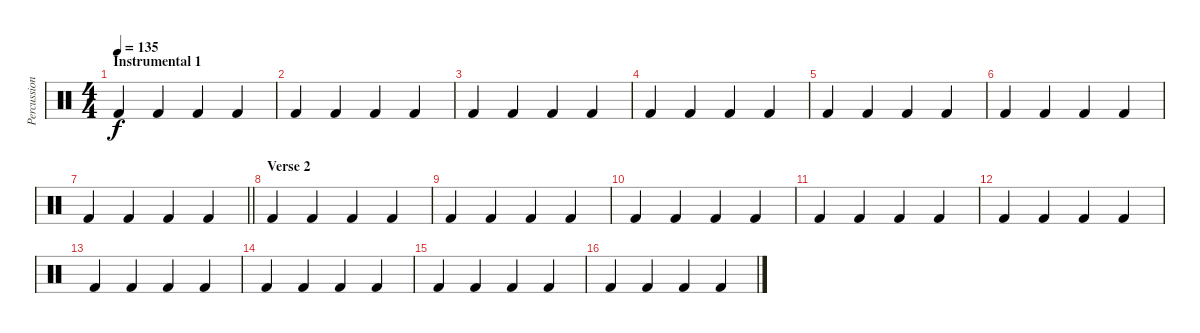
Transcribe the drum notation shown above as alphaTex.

\track ("Percussion" "Percussion") {instrument percussion}
\staff {score}
\articulation defaults
\ts (4 4)
\section ("" "Instrumental 1")
\tempo 135
\clef neutral
\ks c "Kick (hit) 2".4{dy f} "Kick (hit) 2".4 "Kick (hit) 2".4 "Kick (hit) 2".4
|
"Kick (hit) 2".4 "Kick (hit) 2".4 "Kick (hit) 2".4 "Kick (hit) 2".4 |
"Kick (hit) 2".4 "Kick (hit) 2".4 "Kick (hit) 2".4 "Kick (hit) 2".4 |
"Kick (hit) 2".4 "Kick (hit) 2".4 "Kick (hit) 2".4 "Kick (hit) 2".4 |
"Kick (hit) 2".4 "Kick (hit) 2".4 "Kick (hit) 2".4 "Kick (hit) 2".4 |
"Kick (hit) 2".4 "Kick (hit) 2".4 "Kick (hit) 2".4 "Kick (hit) 2".4 |
\barLineRight lightlight "Kick (hit) 2".4 "Kick (hit) 2".4 "Kick (hit) 2".4 "Kick (hit) 2".4
|
\section ("" "Verse 2")
"Kick (hit) 2".4 "Kick (hit) 2".4 "Kick (hit) 2".4 "Kick (hit) 2".4 |
"Kick (hit) 2".4 "Kick (hit) 2".4 "Kick (hit) 2".4 "Kick (hit) 2".4 |
"Kick (hit) 2".4 "Kick (hit) 2".4 "Kick (hit) 2".4 "Kick (hit) 2".4 |
"Kick (hit) 2".4 "Kick (hit) 2".4 "Kick (hit) 2".4 "Kick (hit) 2".4 |
"Kick (hit) 2".4 "Kick (hit) 2".4 "Kick (hit) 2".4 "Kick (hit) 2".4 |
"Kick (hit) 2".4 "Kick (hit) 2".4 "Kick (hit) 2".4 "Kick (hit) 2".4 |
"Kick (hit) 2".4 "Kick (hit) 2".4 "Kick (hit) 2".4 "Kick (hit) 2".4 |
"Kick (hit) 2".4 "Kick (hit) 2".4 "Kick (hit) 2".4 "Kick (hit) 2".4 |
"Kick (hit) 2".4 "Kick (hit) 2".4 "Kick (hit) 2".4 "Kick (hit) 2".4
